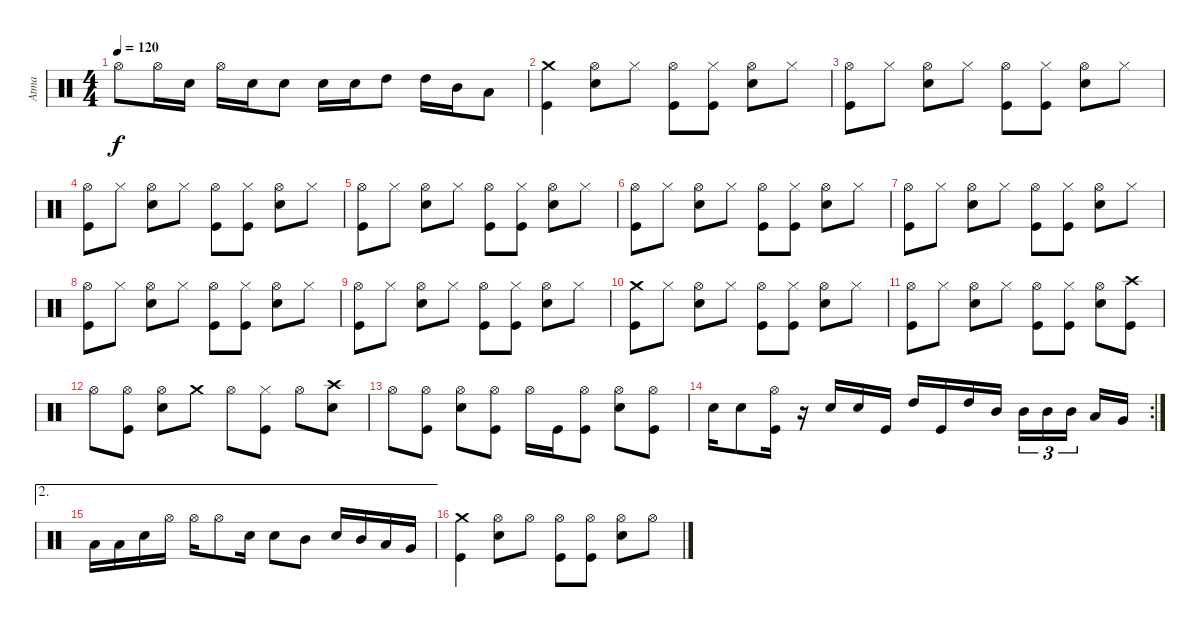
\track ("Atma" "Atma") {instrument percussion}
\staff {score}
\articulation defaults
\ts (4 4)
\tempo 120
\clef neutral
\ks c "Hi-Hat (open)".8{dy f} "Hi-Hat (open)".16 "Snare (hit) 2".16 "Hi-Hat (open)".16 "Snare (hit) 2".16 "Snare (hit) 2".8 "Snare (hit) 2".16 "Snare (hit) 2".16 "High Tom (hit)".8 "High Tom (hit)".16 "Mid Tom (hit)".16 "Low Tom (hit)".8
|
("Kick (hit)" "Crash medium (hit)").4 ("Snare (hit) 2" "Hi-Hat (open)").8 "Hi-Hat (closed)".8 ("Kick (hit)" "Hi-Hat (open)").8 ("Kick (hit)" "Hi-Hat (closed)").8 ("Snare (hit) 2" "Hi-Hat (open)").8 "Hi-Hat (closed)".8 |
("Kick (hit)" "Hi-Hat (open)").8 "Hi-Hat (closed)".8 ("Snare (hit) 2" "Hi-Hat (open)").8 "Hi-Hat (closed)".8 ("Kick (hit)" "Hi-Hat (open)").8 ("Kick (hit)" "Hi-Hat (closed)").8 ("Snare (hit) 2" "Hi-Hat (open)").8 "Hi-Hat (closed)".8 |
("Kick (hit)" "Hi-Hat (open)").8 "Hi-Hat (closed)".8 ("Snare (hit) 2" "Hi-Hat (open)").8 "Hi-Hat (closed)".8 ("Kick (hit)" "Hi-Hat (open)").8 ("Kick (hit)" "Hi-Hat (closed)").8 ("Snare (hit) 2" "Hi-Hat (open)").8 "Hi-Hat (closed)".8 |
("Kick (hit)" "Hi-Hat (open)").8 "Hi-Hat (closed)".8 ("Snare (hit) 2" "Hi-Hat (open)").8 "Hi-Hat (closed)".8 ("Kick (hit)" "Hi-Hat (open)").8 ("Kick (hit)" "Hi-Hat (closed)").8 ("Snare (hit) 2" "Hi-Hat (open)").8 "Hi-Hat (closed)".8 |
("Kick (hit)" "Hi-Hat (open)").8 "Hi-Hat (closed)".8 ("Snare (hit) 2" "Hi-Hat (open)").8 "Hi-Hat (closed)".8 ("Kick (hit)" "Hi-Hat (open)").8 ("Kick (hit)" "Hi-Hat (closed)").8 ("Snare (hit) 2" "Hi-Hat (open)").8 "Hi-Hat (closed)".8 |
("Kick (hit)" "Hi-Hat (open)").8 "Hi-Hat (closed)".8 ("Snare (hit) 2" "Hi-Hat (open)").8 "Hi-Hat (closed)".8 ("Kick (hit)" "Hi-Hat (open)").8 ("Kick (hit)" "Hi-Hat (closed)").8 ("Snare (hit) 2" "Hi-Hat (open)").8 "Hi-Hat (closed)".8 |
("Kick (hit)" "Hi-Hat (open)").8 "Hi-Hat (closed)".8 ("Snare (hit) 2" "Hi-Hat (open)").8 "Hi-Hat (closed)".8 ("Kick (hit)" "Hi-Hat (open)").8 ("Kick (hit)" "Hi-Hat (closed)").8 ("Snare (hit) 2" "Hi-Hat (open)").8 "Hi-Hat (closed)".8 |
("Kick (hit)" "Hi-Hat (open)").8 "Hi-Hat (closed)".8 ("Snare (hit) 2" "Hi-Hat (open)").8 "Hi-Hat (closed)".8 ("Kick (hit)" "Hi-Hat (open)").8 ("Kick (hit)" "Hi-Hat (closed)").8 ("Snare (hit) 2" "Hi-Hat (open)").8 "Hi-Hat (closed)".8 |
("Kick (hit)" "Crash medium (hit)").8 "Hi-Hat (closed)".8 ("Snare (hit) 2" "Hi-Hat (open)").8 "Hi-Hat (closed)".8 ("Kick (hit)" "Hi-Hat (open)").8 ("Kick (hit)" "Hi-Hat (closed)").8 ("Snare (hit) 2" "Hi-Hat (open)").8 "Hi-Hat (closed)".8 |
("Kick (hit)" "Hi-Hat (open)").8 "Hi-Hat (closed)".8 ("Snare (hit) 2" "Hi-Hat (open)").8 "Hi-Hat (closed)".8 ("Kick (hit)" "Hi-Hat (open)").8 ("Kick (hit)" "Hi-Hat (closed)").8 ("Snare (hit) 2" "Hi-Hat (open)").8 ("Kick (hit)" "Crash high (hit)").8 |
"Hi-Hat (open)".8 ("Kick (hit)" "Hi-Hat (open)").8 ("Snare (hit) 2" "Hi-Hat (open)").8 "Crash medium (hit)".8 "Hi-Hat (open)".8 ("Kick (hit)" "Hi-Hat (closed)").8 "Hi-Hat (open)".8 ("Snare (hit) 2" "Crash high (hit)").8 |
"Hi-Hat (open)".8 ("Kick (hit)" "Hi-Hat (open)").8 ("Snare (hit) 2" "Hi-Hat (open)").8 ("Kick (hit)" "Hi-Hat (open)").8 "Hi-Hat (open)".16 "Kick (hit)".16 ("Kick (hit)" "Hi-Hat (open)").8 ("Snare (hit) 2" "Hi-Hat (open)").8 ("Kick (hit)" "Hi-Hat (open)").8 |
\rc 2 "Snare (hit) 2".16 "Snare (hit) 2".8
("Kick (hit)" "Hi-Hat (open)").16 r.16 "Snare (hit) 2".16 "Snare (hit) 2".16 "Kick (hit)".16 "High Tom (hit)".16 "Kick (hit)".16 "High Tom (hit)".16 "Mid Tom (hit)".16 "Mid Tom (hit)".16{tu (3 2)} "Mid Tom (hit)".16{tu (3 2)} "Mid Tom (hit)".16{tu (3 2)} "Low Tom (hit)".16 "Very Low Tom (hit)".16 |
\ae 2 "Low Tom (hit)".16 "Low Tom (hit)".16 "Snare (hit) 2".16 "Hi-Hat (open)".16 "Hi-Hat (open)".16 "Hi-Hat (open)".8 "Snare (hit) 2".16 "Snare (hit) 2".8 "Mid Tom (hit)".8 "Snare (hit) 2".16 "Mid Tom (hit)".16 "Low Tom (hit)".16 "Very Low Tom (hit)".16
|
("Kick (hit)" "Crash medium (hit)").4 ("Snare (hit) 2" "Hi-Hat (open)").8 "Hi-Hat (open)".8 ("Kick (hit)" "Hi-Hat (open)").8 ("Kick (hit)" "Hi-Hat (open)").8 ("Snare (hit) 2" "Hi-Hat (open)").8 "Hi-Hat (open)".8
